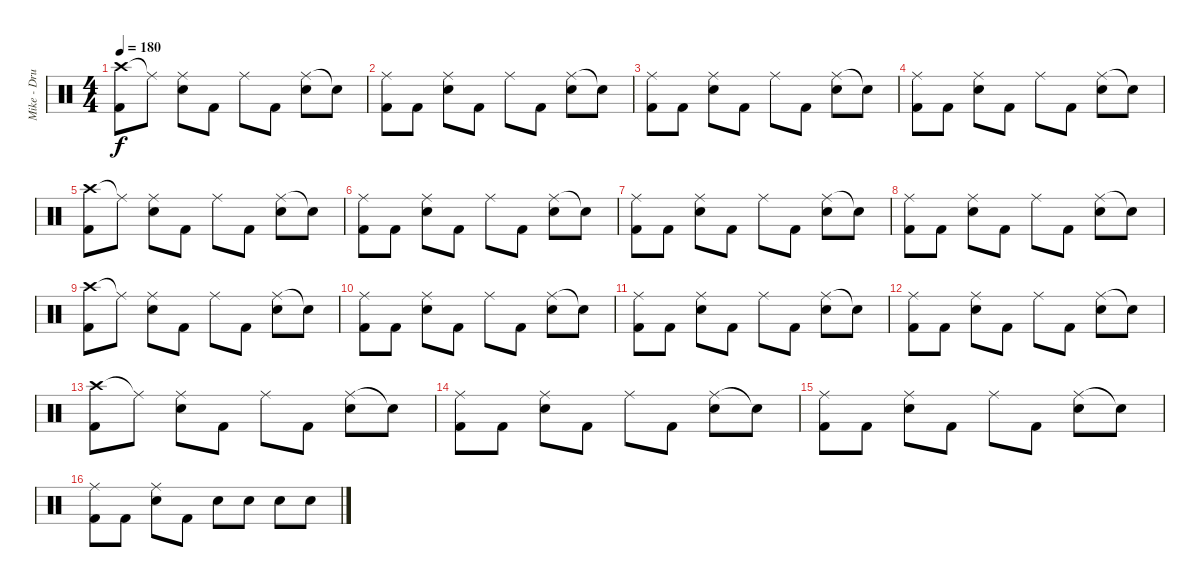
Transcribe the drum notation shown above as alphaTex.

\track ("Mike - Drums" "Mike - Dru") {instrument percussion}
\staff {score}
\articulation defaults
\ts (4 4)
\tempo 180
\clef neutral
\ks c
("Crash high (hit)" "Kick (hit) 2").8{dy f} "Ride (middle)"{t}.8 ("Ride (middle)" "Snare (hit) 2").8 "Kick (hit) 2".8 "Ride (middle)".8 "Kick (hit) 2".8 ("Ride (middle)" "Snare (hit) 2").8 "Snare (hit)"{t}.8 |
("Ride (middle)" "Kick (hit) 2").8 "Kick (hit) 2".8 ("Ride (middle)" "Snare (hit) 2").8 "Kick (hit) 2".8 "Ride (middle)".8 "Kick (hit) 2".8 ("Ride (middle)" "Snare (hit) 2").8 "Snare (hit)"{t}.8 |
("Ride (middle)" "Kick (hit) 2").8 "Kick (hit) 2".8 ("Ride (middle)" "Snare (hit) 2").8 "Kick (hit) 2".8 "Ride (middle)".8 "Kick (hit) 2".8 ("Ride (middle)" "Snare (hit) 2").8 "Snare (hit)"{t}.8 |
("Ride (middle)" "Kick (hit) 2").8 "Kick (hit) 2".8 ("Ride (middle)" "Snare (hit) 2").8 "Kick (hit) 2".8 "Ride (middle)".8 "Kick (hit) 2".8 ("Ride (middle)" "Snare (hit) 2").8 "Snare (hit)"{t}.8 |
("Crash high (hit)" "Kick (hit) 2").8 "Ride (middle)"{t}.8 ("Ride (middle)" "Snare (hit) 2").8 "Kick (hit) 2".8 "Ride (middle)".8 "Kick (hit) 2".8 ("Ride (middle)" "Snare (hit) 2").8 "Snare (hit)"{t}.8 |
("Ride (middle)" "Kick (hit) 2").8 "Kick (hit) 2".8 ("Ride (middle)" "Snare (hit) 2").8 "Kick (hit) 2".8 "Ride (middle)".8 "Kick (hit) 2".8 ("Ride (middle)" "Snare (hit) 2").8 "Snare (hit)"{t}.8 |
("Ride (middle)" "Kick (hit) 2").8 "Kick (hit) 2".8 ("Ride (middle)" "Snare (hit) 2").8 "Kick (hit) 2".8 "Ride (middle)".8 "Kick (hit) 2".8 ("Ride (middle)" "Snare (hit) 2").8 "Snare (hit)"{t}.8 |
("Ride (middle)" "Kick (hit) 2").8 "Kick (hit) 2".8 ("Ride (middle)" "Snare (hit) 2").8 "Kick (hit) 2".8 "Ride (middle)".8 "Kick (hit) 2".8 ("Ride (middle)" "Snare (hit) 2").8 "Snare (hit)"{t}.8 |
("Crash high (hit)" "Kick (hit) 2").8 "Ride (middle)"{t}.8 ("Ride (middle)" "Snare (hit) 2").8 "Kick (hit) 2".8 "Ride (middle)".8 "Kick (hit) 2".8 ("Ride (middle)" "Snare (hit) 2").8 "Snare (hit)"{t}.8 |
("Ride (middle)" "Kick (hit) 2").8 "Kick (hit) 2".8 ("Ride (middle)" "Snare (hit) 2").8 "Kick (hit) 2".8 "Ride (middle)".8 "Kick (hit) 2".8 ("Ride (middle)" "Snare (hit) 2").8 "Snare (hit)"{t}.8 |
("Ride (middle)" "Kick (hit) 2").8 "Kick (hit) 2".8 ("Ride (middle)" "Snare (hit) 2").8 "Kick (hit) 2".8 "Ride (middle)".8 "Kick (hit) 2".8 ("Ride (middle)" "Snare (hit) 2").8 "Snare (hit)"{t}.8 |
("Ride (middle)" "Kick (hit) 2").8 "Kick (hit) 2".8 ("Ride (middle)" "Snare (hit) 2").8 "Kick (hit) 2".8 "Ride (middle)".8 "Kick (hit) 2".8 ("Ride (middle)" "Snare (hit) 2").8 "Snare (hit)"{t}.8 |
("Crash high (hit)" "Kick (hit) 2").8 "Ride (middle)"{t}.8 ("Ride (middle)" "Snare (hit) 2").8 "Kick (hit) 2".8 "Ride (middle)".8 "Kick (hit) 2".8 ("Ride (middle)" "Snare (hit) 2").8 "Snare (hit)"{t}.8 |
("Ride (middle)" "Kick (hit) 2").8 "Kick (hit) 2".8 ("Ride (middle)" "Snare (hit) 2").8 "Kick (hit) 2".8 "Ride (middle)".8 "Kick (hit) 2".8 ("Ride (middle)" "Snare (hit) 2").8 "Snare (hit)"{t}.8 |
("Ride (middle)" "Kick (hit) 2").8 "Kick (hit) 2".8 ("Ride (middle)" "Snare (hit) 2").8 "Kick (hit) 2".8 "Ride (middle)".8 "Kick (hit) 2".8 ("Ride (middle)" "Snare (hit) 2").8 "Snare (hit)"{t}.8 |
("Ride (middle)" "Kick (hit) 2").8 "Kick (hit) 2".8 ("Ride (middle)" "Snare (hit) 2").8 "Kick (hit) 2".8 "Snare (hit) 2".8 "Snare (hit) 2".8 "Snare (hit) 2".8 "Snare (hit) 2".8
